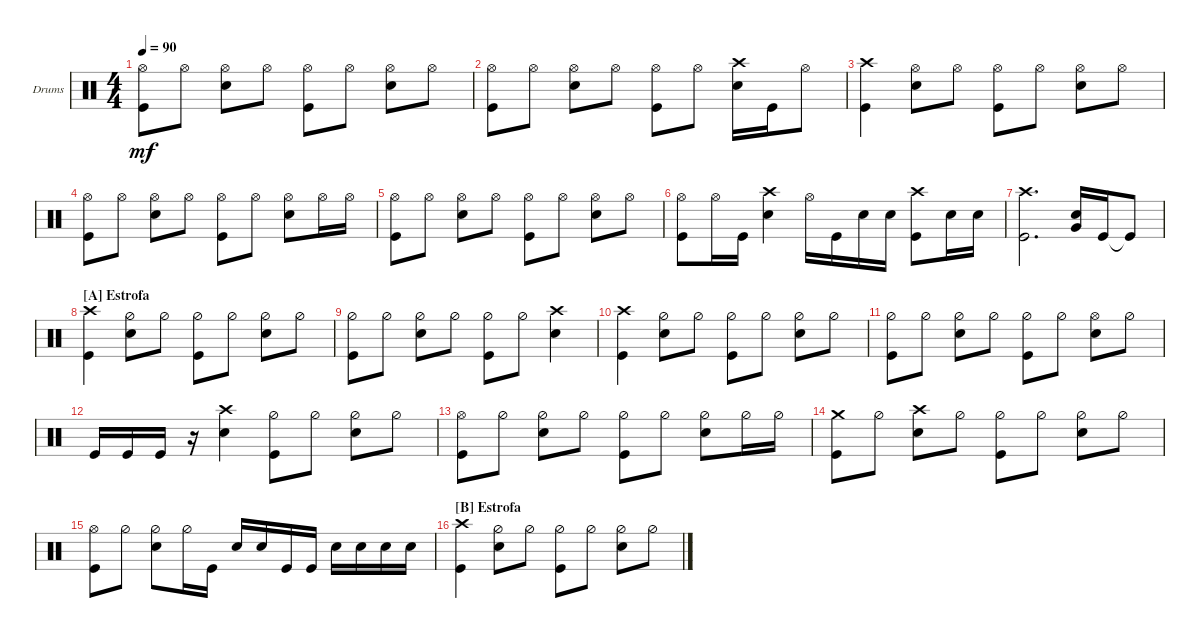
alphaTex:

\bracketExtendMode groupsimilarinstruments
\firstSystemTrackNameOrientation horizontal
\otherSystemsTrackNameOrientation horizontal
\track ("Arin Ilejay" "Drums") {instrument percussion}
\staff {score}
\articulation defaults
\ts (4 4)
\tempo 90
\clef neutral
\ks c
("Hi-Hat (open)" "Kick (hit)").8{dy mf} "Hi-Hat (open)".8 ("Snare (hit) 2" "Hi-Hat (open)").8 "Hi-Hat (open)".8 ("Hi-Hat (open)" "Kick (hit)").8 "Hi-Hat (open)".8 ("Snare (hit) 2" "Hi-Hat (open)").8 "Hi-Hat (open)".8 |
("Hi-Hat (open)" "Kick (hit)").8 "Hi-Hat (open)".8 ("Snare (hit) 2" "Hi-Hat (open)").8 "Hi-Hat (open)".8 ("Hi-Hat (open)" "Kick (hit)").8 "Hi-Hat (open)".8 ("Snare (hit) 2" "Crash high (hit)").16 "Kick (hit)".16 "Hi-Hat (open)".8 |
("Crash high (hit)" "Kick (hit)").4 ("Snare (hit) 2" "Hi-Hat (open)").8 "Hi-Hat (open)".8 ("Hi-Hat (open)" "Kick (hit)").8 "Hi-Hat (open)".8 ("Snare (hit) 2" "Hi-Hat (open)").8 "Hi-Hat (open)".8 |
("Hi-Hat (open)" "Kick (hit)").8 "Hi-Hat (open)".8 ("Snare (hit) 2" "Hi-Hat (open)").8 "Hi-Hat (open)".8 ("Hi-Hat (open)" "Kick (hit)").8 "Hi-Hat (open)".8 ("Snare (hit) 2" "Hi-Hat (open)").8 "Hi-Hat (open)".16 "Hi-Hat (open)".16 |
("Hi-Hat (open)" "Kick (hit)").8 "Hi-Hat (open)".8 ("Snare (hit) 2" "Hi-Hat (open)").8 "Hi-Hat (open)".8 ("Hi-Hat (open)" "Kick (hit)").8 "Hi-Hat (open)".8 ("Snare (hit) 2" "Hi-Hat (open)").8 "Hi-Hat (open)".8 |
("Hi-Hat (open)" "Kick (hit)").8 "Hi-Hat (open)".16 "Kick (hit)".16 ("Snare (hit) 2" "Crash high (hit)").4 "Hi-Hat (open)".16 "Kick (hit)".16 "Snare (hit) 2".16 "Snare (hit) 2".16 ("Kick (hit)" "Crash high (hit)").8 "Snare (hit) 2".16 "Snare (hit) 2".16 |
("Kick (hit)" "Crash high (hit)").2{d} ("Snare (hit) 2" "Very Low Tom (hit)").16 "Kick (hit)".16 "Kick (hit)"{t}.8 |
\section ("A" "Estrofa")
("Crash high (hit)" "Kick (hit)").4 ("Snare (hit) 2" "Hi-Hat (half)").8 "Hi-Hat (half)".8 ("Hi-Hat (half)" "Kick (hit)").8 "Hi-Hat (half)".8 ("Snare (hit) 2" "Hi-Hat (half)").8 "Hi-Hat (half)".8 |
("Hi-Hat (half)" "Kick (hit)").8 "Hi-Hat (half)".8 ("Snare (hit) 2" "Hi-Hat (half)").8 "Hi-Hat (half)".8 ("Hi-Hat (half)" "Kick (hit)").8 "Hi-Hat (half)".8 ("Crash high (hit)" "Snare (hit) 2").4 |
("Crash high (hit)" "Kick (hit)").4 ("Snare (hit) 2" "Hi-Hat (half)").8 "Hi-Hat (half)".8 ("Hi-Hat (half)" "Kick (hit)").8 "Hi-Hat (half)".8 ("Snare (hit) 2" "Hi-Hat (half)").8 "Hi-Hat (half)".8 |
("Hi-Hat (half)" "Kick (hit)").8 "Hi-Hat (half)".8 ("Snare (hit) 2" "Hi-Hat (half)").8 "Hi-Hat (half)".8 ("Hi-Hat (half)" "Kick (hit)").8 "Hi-Hat (half)".8 ("Snare (hit) 2" "Hi-Hat (open)").8 "Hi-Hat (half)".8 |
"Kick (hit)".16 "Kick (hit)".16 "Kick (hit)".16 r.16 ("Crash high (hit)" "Snare (hit) 2").4 ("Hi-Hat (half)" "Kick (hit)").8 "Hi-Hat (half)".8 ("Snare (hit) 2" "Hi-Hat (half)").8 "Hi-Hat (half)".8 |
("Hi-Hat (open)" "Kick (hit)").8 "Hi-Hat (half)".8 ("Snare (hit) 2" "Hi-Hat (half)").8 "Hi-Hat (half)".8 ("Hi-Hat (half)" "Kick (hit)").8 "Hi-Hat (half)".8 ("Snare (hit) 2" "Hi-Hat (half)").8 "Hi-Hat (half)".16 "Hi-Hat (half)".16 |
("Kick (hit)" "Crash medium (hit)").8 "Hi-Hat (half)".8 ("Snare (hit) 2" "Crash high (hit)").8 "Hi-Hat (half)".8 ("Hi-Hat (half)" "Kick (hit)").8 "Hi-Hat (half)".8 ("Snare (hit) 2" "Hi-Hat (half)").8 "Hi-Hat (half)".8 |
("Hi-Hat (open)" "Kick (hit)").8 "Hi-Hat (half)".8 ("Snare (hit) 2" "Hi-Hat (half)").8 "Hi-Hat (half)".16 "Kick (hit)".16 "Snare (hit) 2".16 "Snare (hit) 2".16 "Kick (hit)".16 "Kick (hit)".16 "Snare (hit) 2".16 "Snare (hit) 2".16 "Snare (hit) 2".16 "Snare (hit) 2".16 |
\section ("B" "Estrofa")
("Crash high (hit)" "Kick (hit)").4 ("Hi-Hat (half)" "Snare (hit) 2").8 "Hi-Hat (half)".8 ("Hi-Hat (half)" "Kick (hit)").8 "Hi-Hat (half)".8 ("Hi-Hat (half)" "Snare (hit) 2").8 "Hi-Hat (half)".8
